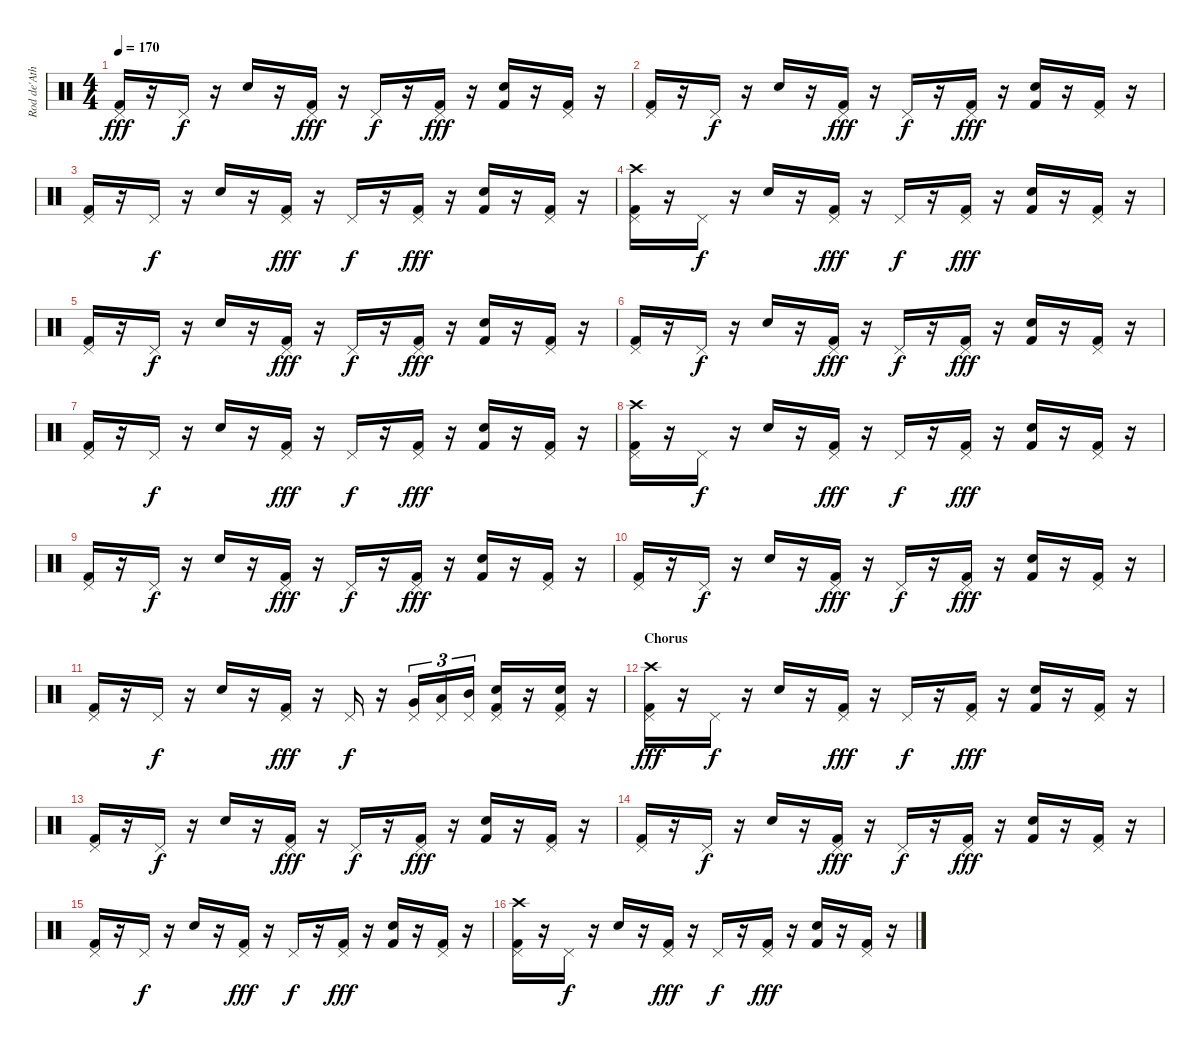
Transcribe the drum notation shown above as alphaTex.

\track ("Rod de'Ath" "Rod de'Ath") {instrument percussion}
\staff {score}
\articulation defaults
\ts (4 4)
\tempo 170
\clef neutral
\ks c
("Pedal Hi-Hat (hit)" "Kick (hit) 2").16{dy fff} r.16 "Pedal Hi-Hat (hit)".16{dy f} r.16 "Snare (hit) 2".16 r.16 ("Pedal Hi-Hat (hit)" "Kick (hit) 2").16{dy fff} r.16 "Pedal Hi-Hat (hit)".16{dy f} r.16 ("Pedal Hi-Hat (hit)" "Kick (hit) 2").16{dy fff} r.16 ("Electric Snare (hit)" "Kick (hit) 2").16 r.16 ("Pedal Hi-Hat (hit)" "Kick (hit) 2").16 r.16 |
("Pedal Hi-Hat (hit)" "Kick (hit) 2").16 r.16 "Pedal Hi-Hat (hit)".16{dy f} r.16 "Snare (hit) 2".16 r.16 ("Pedal Hi-Hat (hit)" "Kick (hit) 2").16{dy fff} r.16 "Pedal Hi-Hat (hit)".16{dy f} r.16 ("Pedal Hi-Hat (hit)" "Kick (hit) 2").16{dy fff} r.16 ("Electric Snare (hit)" "Kick (hit) 2").16 r.16 ("Pedal Hi-Hat (hit)" "Kick (hit) 2").16 r.16 |
("Pedal Hi-Hat (hit)" "Kick (hit) 2").16 r.16 "Pedal Hi-Hat (hit)".16{dy f} r.16 "Snare (hit) 2".16 r.16 ("Pedal Hi-Hat (hit)" "Kick (hit) 2").16{dy fff} r.16 "Pedal Hi-Hat (hit)".16{dy f} r.16 ("Pedal Hi-Hat (hit)" "Kick (hit) 2").16{dy fff} r.16 ("Electric Snare (hit)" "Kick (hit) 2").16 r.16 ("Pedal Hi-Hat (hit)" "Kick (hit) 2").16 r.16 |
("Crash high (hit)" "Pedal Hi-Hat (hit)" "Kick (hit) 2").16 r.16 "Pedal Hi-Hat (hit)".16{dy f} r.16 "Snare (hit) 2".16 r.16 ("Pedal Hi-Hat (hit)" "Kick (hit) 2").16{dy fff} r.16 "Pedal Hi-Hat (hit)".16{dy f} r.16 ("Pedal Hi-Hat (hit)" "Kick (hit) 2").16{dy fff} r.16 ("Electric Snare (hit)" "Kick (hit) 2").16 r.16 ("Pedal Hi-Hat (hit)" "Kick (hit) 2").16 r.16 |
("Pedal Hi-Hat (hit)" "Kick (hit) 2").16 r.16 "Pedal Hi-Hat (hit)".16{dy f} r.16 "Snare (hit) 2".16 r.16 ("Pedal Hi-Hat (hit)" "Kick (hit) 2").16{dy fff} r.16 "Pedal Hi-Hat (hit)".16{dy f} r.16 ("Pedal Hi-Hat (hit)" "Kick (hit) 2").16{dy fff} r.16 ("Electric Snare (hit)" "Kick (hit) 2").16 r.16 ("Pedal Hi-Hat (hit)" "Kick (hit) 2").16 r.16 |
("Pedal Hi-Hat (hit)" "Kick (hit) 2").16 r.16 "Pedal Hi-Hat (hit)".16{dy f} r.16 "Snare (hit) 2".16 r.16 ("Pedal Hi-Hat (hit)" "Kick (hit) 2").16{dy fff} r.16 "Pedal Hi-Hat (hit)".16{dy f} r.16 ("Pedal Hi-Hat (hit)" "Kick (hit) 2").16{dy fff} r.16 ("Electric Snare (hit)" "Kick (hit) 2").16 r.16 ("Pedal Hi-Hat (hit)" "Kick (hit) 2").16 r.16 |
("Pedal Hi-Hat (hit)" "Kick (hit) 2").16 r.16 "Pedal Hi-Hat (hit)".16{dy f} r.16 "Snare (hit) 2".16 r.16 ("Pedal Hi-Hat (hit)" "Kick (hit) 2").16{dy fff} r.16 "Pedal Hi-Hat (hit)".16{dy f} r.16 ("Pedal Hi-Hat (hit)" "Kick (hit) 2").16{dy fff} r.16 ("Electric Snare (hit)" "Kick (hit) 2").16 r.16 ("Pedal Hi-Hat (hit)" "Kick (hit) 2").16 r.16 |
("Crash high (hit)" "Pedal Hi-Hat (hit)" "Kick (hit) 2").16 r.16 "Pedal Hi-Hat (hit)".16{dy f} r.16 "Snare (hit) 2".16 r.16 ("Pedal Hi-Hat (hit)" "Kick (hit) 2").16{dy fff} r.16 "Pedal Hi-Hat (hit)".16{dy f} r.16 ("Pedal Hi-Hat (hit)" "Kick (hit) 2").16{dy fff} r.16 ("Electric Snare (hit)" "Kick (hit) 2").16 r.16 ("Pedal Hi-Hat (hit)" "Kick (hit) 2").16 r.16 |
("Pedal Hi-Hat (hit)" "Kick (hit) 2").16 r.16 "Pedal Hi-Hat (hit)".16{dy f} r.16 "Snare (hit) 2".16 r.16 ("Pedal Hi-Hat (hit)" "Kick (hit) 2").16{dy fff} r.16 "Pedal Hi-Hat (hit)".16{dy f} r.16 ("Pedal Hi-Hat (hit)" "Kick (hit) 2").16{dy fff} r.16 ("Electric Snare (hit)" "Kick (hit) 2").16 r.16 ("Pedal Hi-Hat (hit)" "Kick (hit) 2").16 r.16 |
("Pedal Hi-Hat (hit)" "Kick (hit) 2").16 r.16 "Pedal Hi-Hat (hit)".16{dy f} r.16 "Snare (hit) 2".16 r.16 ("Pedal Hi-Hat (hit)" "Kick (hit) 2").16{dy fff} r.16 "Pedal Hi-Hat (hit)".16{dy f} r.16 ("Pedal Hi-Hat (hit)" "Kick (hit) 2").16{dy fff} r.16 ("Electric Snare (hit)" "Kick (hit) 2").16 r.16 ("Pedal Hi-Hat (hit)" "Kick (hit) 2").16 r.16 |
("Pedal Hi-Hat (hit)" "Kick (hit) 2").16 r.16 "Pedal Hi-Hat (hit)".16{dy f} r.16 "Snare (hit) 2".16 r.16 ("Pedal Hi-Hat (hit)" "Kick (hit) 2").16{dy fff} r.16 "Pedal Hi-Hat (hit)".16{dy f} r.16 ("Pedal Hi-Hat (hit)" "Very Low Tom (hit)").16{tu (3 2)} ("Pedal Hi-Hat (hit)" "Low Tom (hit)").16{tu (3 2)} ("Pedal Hi-Hat (hit)" "Mid Tom (hit)").16{tu (3 2)} ("Pedal Hi-Hat (hit)" "Snare (hit) 2" "Kick (hit) 2").16 r.16 ("Pedal Hi-Hat (hit)" "Electric Snare (hit)" "Kick (hit) 2").16 r.16 |
\section ("" "Chorus")
("Crash high (hit)" "Pedal Hi-Hat (hit)" "Kick (hit) 2").16{dy fff} r.16 "Pedal Hi-Hat (hit)".16{dy f} r.16 "Snare (hit) 2".16 r.16 ("Pedal Hi-Hat (hit)" "Kick (hit) 2").16{dy fff} r.16 "Pedal Hi-Hat (hit)".16{dy f} r.16 ("Pedal Hi-Hat (hit)" "Kick (hit) 2").16{dy fff} r.16 ("Electric Snare (hit)" "Kick (hit) 2").16 r.16 ("Pedal Hi-Hat (hit)" "Kick (hit) 2").16 r.16 |
("Pedal Hi-Hat (hit)" "Kick (hit) 2").16 r.16 "Pedal Hi-Hat (hit)".16{dy f} r.16 "Snare (hit) 2".16 r.16 ("Pedal Hi-Hat (hit)" "Kick (hit) 2").16{dy fff} r.16 "Pedal Hi-Hat (hit)".16{dy f} r.16 ("Pedal Hi-Hat (hit)" "Kick (hit) 2").16{dy fff} r.16 ("Electric Snare (hit)" "Kick (hit) 2").16 r.16 ("Pedal Hi-Hat (hit)" "Kick (hit) 2").16 r.16 |
("Pedal Hi-Hat (hit)" "Kick (hit) 2").16 r.16 "Pedal Hi-Hat (hit)".16{dy f} r.16 "Snare (hit) 2".16 r.16 ("Pedal Hi-Hat (hit)" "Kick (hit) 2").16{dy fff} r.16 "Pedal Hi-Hat (hit)".16{dy f} r.16 ("Pedal Hi-Hat (hit)" "Kick (hit) 2").16{dy fff} r.16 ("Electric Snare (hit)" "Kick (hit) 2").16 r.16 ("Pedal Hi-Hat (hit)" "Kick (hit) 2").16 r.16 |
("Pedal Hi-Hat (hit)" "Kick (hit) 2").16 r.16 "Pedal Hi-Hat (hit)".16{dy f} r.16 "Snare (hit) 2".16 r.16 ("Pedal Hi-Hat (hit)" "Kick (hit) 2").16{dy fff} r.16 "Pedal Hi-Hat (hit)".16{dy f} r.16 ("Pedal Hi-Hat (hit)" "Kick (hit) 2").16{dy fff} r.16 ("Electric Snare (hit)" "Kick (hit) 2").16 r.16 ("Pedal Hi-Hat (hit)" "Kick (hit) 2").16 r.16 |
("Crash high (hit)" "Pedal Hi-Hat (hit)" "Kick (hit) 2").16 r.16 "Pedal Hi-Hat (hit)".16{dy f} r.16 "Snare (hit) 2".16 r.16 ("Pedal Hi-Hat (hit)" "Kick (hit) 2").16{dy fff} r.16 "Pedal Hi-Hat (hit)".16{dy f} r.16 ("Pedal Hi-Hat (hit)" "Kick (hit) 2").16{dy fff} r.16 ("Electric Snare (hit)" "Kick (hit) 2").16 r.16 ("Pedal Hi-Hat (hit)" "Kick (hit) 2").16 r.16
